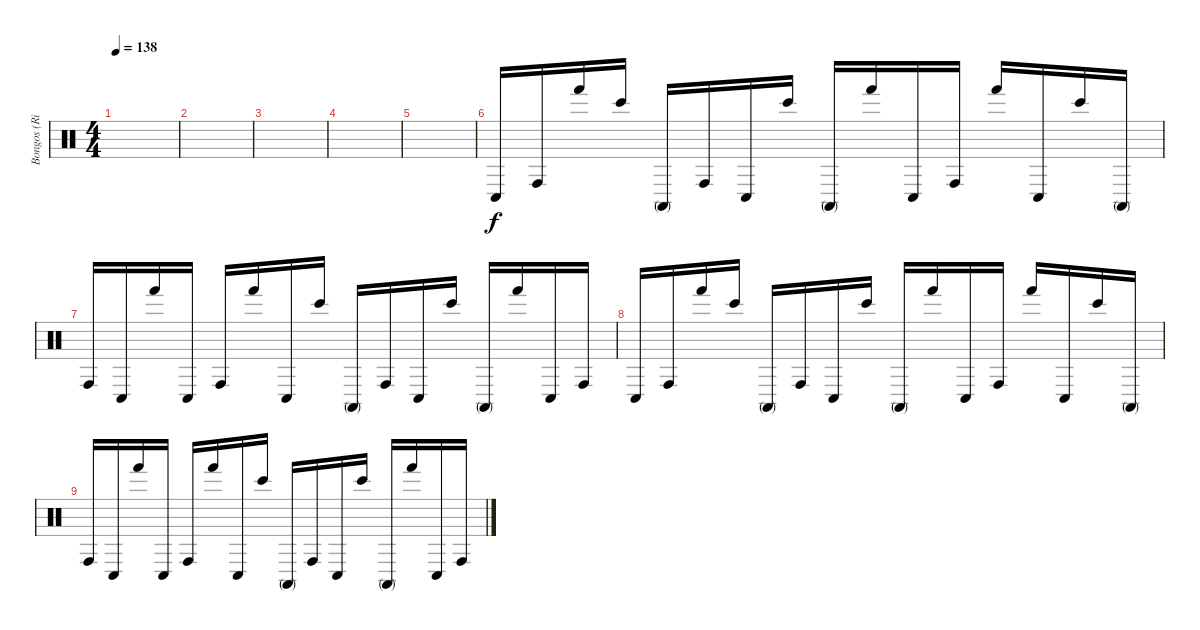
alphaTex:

\track ("Bongos (Ringo Starr)" "Bongos (Ri") {instrument percussion}
\staff {score}
\articulation defaults
\ts (4 4)
\tempo 138
\clef neutral
\ks c
|
|
|
|
|
"Conga low (hit)".16 "Conga high (hit)".16 "Hand (hit)".16 "Bongo High (hit)".16 "Conga high (mute)".16 "Conga high (hit)".16 "Conga low (hit)".16 "Bongo High (hit)".16 "Conga high (mute)".16 "Hand (hit)".16 "Conga low (hit)".16 "Conga high (hit)".16 "Hand (hit)".16 "Conga low (hit)".16 "Bongo High (hit)".16 "Conga high (mute)".16 |
"Conga high (hit)".16 "Conga low (hit)".16 "Hand (hit)".16 "Conga low (hit)".16 "Conga high (hit)".16 "Hand (hit)".16 "Conga low (hit)".16 "Bongo High (hit)".16 "Conga high (mute)".16 "Conga high (hit)".16 "Conga low (hit)".16 "Bongo High (hit)".16 "Conga high (mute)".16 "Hand (hit)".16 "Conga low (hit)".16 "Conga high (hit)".16 |
"Conga low (hit)".16 "Conga high (hit)".16 "Hand (hit)".16 "Bongo High (hit)".16 "Conga high (mute)".16 "Conga high (hit)".16 "Conga low (hit)".16 "Bongo High (hit)".16 "Conga high (mute)".16 "Hand (hit)".16 "Conga low (hit)".16 "Conga high (hit)".16 "Hand (hit)".16 "Conga low (hit)".16 "Bongo High (hit)".16 "Conga high (mute)".16 |
"Conga high (hit)".16 "Conga low (hit)".16 "Hand (hit)".16 "Conga low (hit)".16 "Conga high (hit)".16 "Hand (hit)".16 "Conga low (hit)".16 "Bongo High (hit)".16 "Conga high (mute)".16 "Conga high (hit)".16 "Conga low (hit)".16 "Bongo High (hit)".16 "Conga high (mute)".16 "Hand (hit)".16 "Conga low (hit)".16 "Conga high (hit)".16
